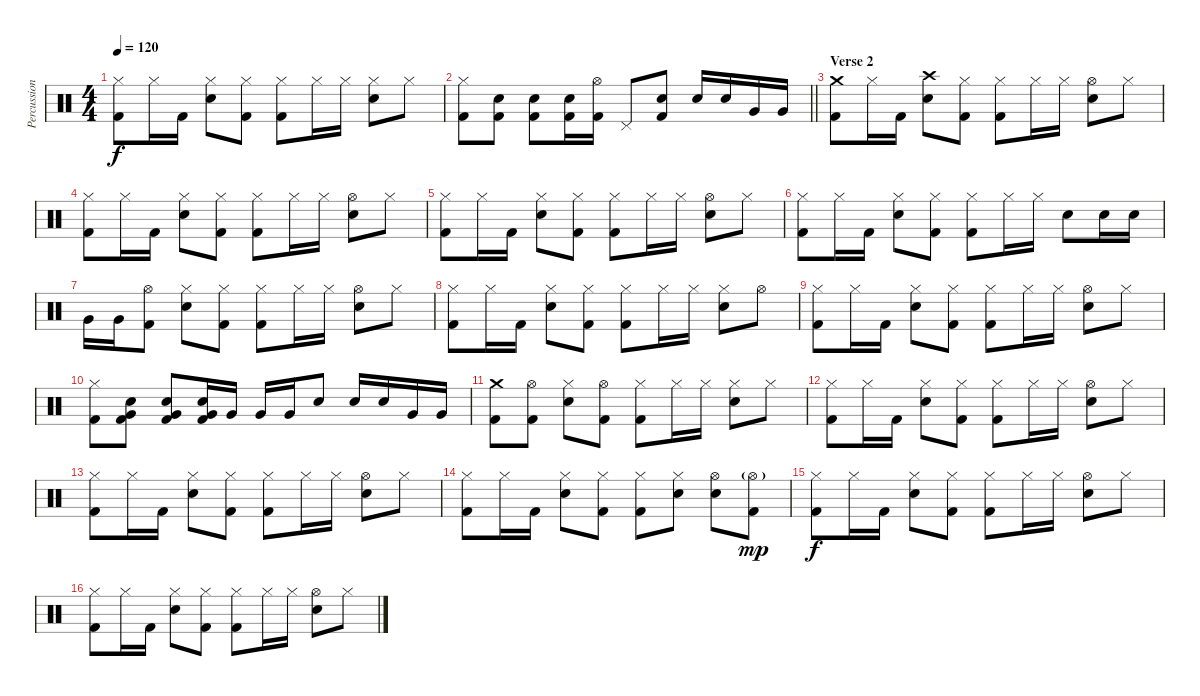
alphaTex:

\track ("Percussion" "Percussion") {instrument percussion}
\staff {score}
\articulation defaults
\ts (4 4)
\tempo 120
\clef neutral
\ks c
("Hi-Hat (closed)" "Kick (hit) 2").8{dy f} "Hi-Hat (closed)".16 "Kick (hit) 2".16 ("Hi-Hat (closed)" "Electric Snare (hit)").8 ("Hi-Hat (closed)" "Kick (hit) 2").8 ("Hi-Hat (closed)" "Kick (hit) 2").8 "Hi-Hat (closed)".16 "Hi-Hat (closed)".16 ("Hi-Hat (closed)" "Electric Snare (hit)").8 "Hi-Hat (closed)".8 |
\barLineRight lightlight
("Hi-Hat (closed)" "Kick (hit) 2").8 ("Electric Snare (hit)" "Kick (hit) 2").8 ("Electric Snare (hit)" "Kick (hit) 2").8 ("Electric Snare (hit)" "Kick (hit) 2").16 ("Hi-Hat (open)" "Kick (hit) 2").16 "Pedal Hi-Hat (hit)".8 ("Electric Snare (hit)" "Kick (hit) 2").8 "Electric Snare (hit)".16 "Electric Snare (hit)".16 "Very Low Tom (hit)".16 "Very Low Tom (hit)".16 |
\section ("" "Verse 2")
("Crash medium (hit)" "Kick (hit) 2").8 "Hi-Hat (closed)".16 "Kick (hit) 2".16 ("Crash high (hit)" "Electric Snare (hit)").8 ("Hi-Hat (closed)" "Kick (hit) 2").8 ("Hi-Hat (closed)" "Kick (hit) 2").8 "Hi-Hat (closed)".16 "Hi-Hat (closed)".16 ("Hi-Hat (open)" "Electric Snare (hit)").8 "Hi-Hat (closed)".8 |
("Hi-Hat (closed)" "Kick (hit) 2").8 "Hi-Hat (closed)".16 "Kick (hit) 2".16 ("Hi-Hat (closed)" "Electric Snare (hit)").8 ("Hi-Hat (closed)" "Kick (hit) 2").8 ("Hi-Hat (closed)" "Kick (hit) 2").8 "Hi-Hat (closed)".16 "Hi-Hat (closed)".16 ("Hi-Hat (open)" "Electric Snare (hit)").8 "Hi-Hat (closed)".8 |
("Hi-Hat (closed)" "Kick (hit) 2").8 "Hi-Hat (closed)".16 "Kick (hit) 2".16 ("Hi-Hat (closed)" "Electric Snare (hit)").8 ("Hi-Hat (closed)" "Kick (hit) 2").8 ("Hi-Hat (closed)" "Kick (hit) 2").8 "Hi-Hat (closed)".16 "Hi-Hat (closed)".16 ("Hi-Hat (open)" "Electric Snare (hit)").8 "Hi-Hat (closed)".8 |
("Hi-Hat (closed)" "Kick (hit) 2").8 "Hi-Hat (closed)".16 "Kick (hit) 2".16 ("Hi-Hat (closed)" "Electric Snare (hit)").8 ("Hi-Hat (closed)" "Kick (hit) 2").8 ("Hi-Hat (closed)" "Kick (hit) 2").8 "Hi-Hat (closed)".16 "Hi-Hat (closed)".16 "Electric Snare (hit)".8 "Electric Snare (hit)".16 "Electric Snare (hit)".16 |
"Very Low Tom (hit)".16 "Very Low Tom (hit)".16 ("Hi-Hat (open)" "Kick (hit) 2").8 ("Hi-Hat (closed)" "Electric Snare (hit)").8 ("Hi-Hat (closed)" "Kick (hit) 2").8 ("Hi-Hat (closed)" "Kick (hit) 2").8 "Hi-Hat (closed)".16 "Hi-Hat (closed)".16 ("Hi-Hat (open)" "Electric Snare (hit)").8 "Hi-Hat (closed)".8 |
("Hi-Hat (closed)" "Kick (hit) 2").8 "Hi-Hat (closed)".16 "Kick (hit) 2".16 ("Hi-Hat (closed)" "Electric Snare (hit)").8 ("Hi-Hat (closed)" "Kick (hit) 2").8 ("Hi-Hat (closed)" "Kick (hit) 2").8 "Hi-Hat (closed)".16 "Hi-Hat (closed)".16 ("Hi-Hat (closed)" "Electric Snare (hit)").8 "Hi-Hat (open)".8 |
("Hi-Hat (closed)" "Kick (hit) 2").8 "Hi-Hat (closed)".16 "Kick (hit) 2".16 ("Hi-Hat (closed)" "Electric Snare (hit)").8 ("Hi-Hat (closed)" "Kick (hit) 2").8 ("Hi-Hat (closed)" "Kick (hit) 2").8 "Hi-Hat (closed)".16 "Hi-Hat (closed)".16 ("Hi-Hat (open)" "Electric Snare (hit)").8 "Hi-Hat (closed)".8 |
("Hi-Hat (closed)" "Kick (hit) 2").8 ("Very Low Tom (hit)" "Electric Snare (hit)" "Kick (hit) 2").8 ("Very Low Tom (hit)" "Electric Snare (hit)" "Kick (hit) 2").8 ("Very Low Tom (hit)" "Electric Snare (hit)" "Kick (hit) 2").16 "Very Low Tom (hit)".16 "Very Low Tom (hit)".16 "Very Low Tom (hit)".16 "Electric Snare (hit)".8 "Electric Snare (hit)".16 "Electric Snare (hit)".16 "Very Low Tom (hit)".16 "Very Low Tom (hit)".16 |
("Crash medium (hit)" "Kick (hit) 2").8 ("Hi-Hat (open)" "Kick (hit) 2").8 ("Hi-Hat (closed)" "Electric Snare (hit)").8 ("Hi-Hat (open)" "Kick (hit) 2").8 ("Hi-Hat (closed)" "Kick (hit) 2").8 "Hi-Hat (closed)".16 "Hi-Hat (closed)".16 ("Hi-Hat (closed)" "Electric Snare (hit)").8 "Hi-Hat (closed)".8 |
("Hi-Hat (closed)" "Kick (hit) 2").8 "Hi-Hat (closed)".16 "Kick (hit) 2".16 ("Hi-Hat (closed)" "Electric Snare (hit)").8 ("Hi-Hat (closed)" "Kick (hit) 2").8 ("Hi-Hat (closed)" "Kick (hit) 2").8 "Hi-Hat (closed)".16 "Hi-Hat (closed)".16 ("Hi-Hat (open)" "Electric Snare (hit)").8 "Hi-Hat (closed)".8 |
("Hi-Hat (closed)" "Kick (hit) 2").8 "Hi-Hat (closed)".16 "Kick (hit) 2".16 ("Hi-Hat (closed)" "Electric Snare (hit)").8 ("Hi-Hat (closed)" "Kick (hit) 2").8 ("Hi-Hat (closed)" "Kick (hit) 2").8 "Hi-Hat (closed)".16 "Hi-Hat (closed)".16 ("Hi-Hat (open)" "Electric Snare (hit)").8 "Hi-Hat (closed)".8 |
("Hi-Hat (closed)" "Kick (hit) 2").8 "Hi-Hat (closed)".16 "Kick (hit) 2".16 ("Hi-Hat (closed)" "Electric Snare (hit)").8 ("Hi-Hat (closed)" "Kick (hit) 2").8 ("Hi-Hat (closed)" "Kick (hit) 2").8 ("Hi-Hat (closed)" "Electric Snare (hit)").8 ("Hi-Hat (open)" "Electric Snare (hit)").8 ("Hi-Hat (open)"{g} "Kick (hit) 2").8{dy mp} |
("Hi-Hat (closed)" "Kick (hit) 2").8{dy f} "Hi-Hat (closed)".16 "Kick (hit) 2".16 ("Hi-Hat (closed)" "Electric Snare (hit)").8 ("Hi-Hat (closed)" "Kick (hit) 2").8 ("Hi-Hat (closed)" "Kick (hit) 2").8 "Hi-Hat (closed)".16 "Hi-Hat (closed)".16 ("Hi-Hat (open)" "Electric Snare (hit)").8 "Hi-Hat (closed)".8 |
("Hi-Hat (closed)" "Kick (hit) 2").8 "Hi-Hat (closed)".16 "Kick (hit) 2".16 ("Hi-Hat (closed)" "Electric Snare (hit)").8 ("Hi-Hat (closed)" "Kick (hit) 2").8 ("Hi-Hat (closed)" "Kick (hit) 2").8 "Hi-Hat (closed)".16 "Hi-Hat (closed)".16 ("Hi-Hat (open)" "Electric Snare (hit)").8 "Hi-Hat (closed)".8
